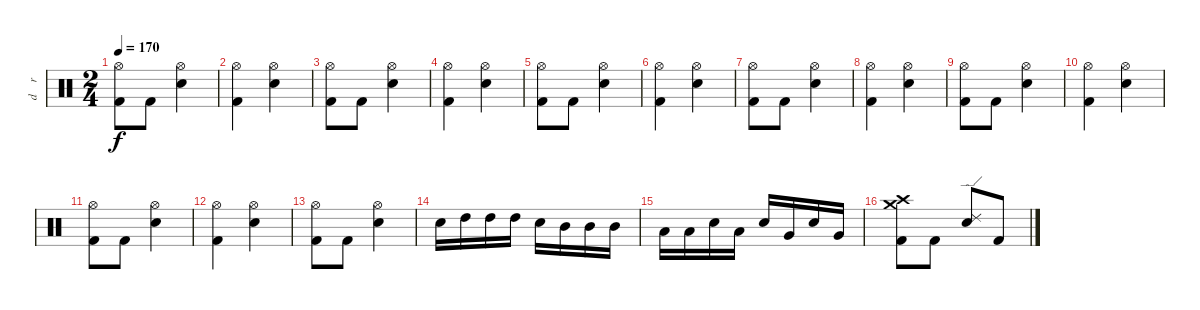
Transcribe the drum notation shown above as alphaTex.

\track ("d    r     u     m    s" "d    r    ") {instrument percussion}
\staff {score}
\articulation defaults
\ts (2 4)
\tempo 170
\clef neutral
\ks c
("Hi-Hat (open)" "Kick (hit) 2").8{dy f} "Kick (hit) 2".8 ("Hi-Hat (open)" "Electric Snare (hit)").4 |
("Hi-Hat (open)" "Kick (hit) 2").4 ("Hi-Hat (open)" "Electric Snare (hit)").4 |
("Hi-Hat (open)" "Kick (hit) 2").8 "Kick (hit) 2".8 ("Hi-Hat (open)" "Electric Snare (hit)").4 |
("Hi-Hat (open)" "Kick (hit) 2").4 ("Hi-Hat (open)" "Electric Snare (hit)").4 |
("Hi-Hat (open)" "Kick (hit) 2").8 "Kick (hit) 2".8 ("Hi-Hat (open)" "Electric Snare (hit)").4 |
("Hi-Hat (open)" "Kick (hit) 2").4 ("Hi-Hat (open)" "Electric Snare (hit)").4 |
("Hi-Hat (open)" "Kick (hit) 2").8 "Kick (hit) 2".8 ("Hi-Hat (open)" "Electric Snare (hit)").4 |
("Hi-Hat (open)" "Kick (hit) 2").4 ("Hi-Hat (open)" "Electric Snare (hit)").4 |
("Hi-Hat (open)" "Kick (hit) 2").8 "Kick (hit) 2".8 ("Hi-Hat (open)" "Electric Snare (hit)").4 |
("Hi-Hat (open)" "Kick (hit) 2").4 ("Hi-Hat (open)" "Electric Snare (hit)").4 |
("Hi-Hat (open)" "Kick (hit) 2").8 "Kick (hit) 2".8 ("Hi-Hat (open)" "Electric Snare (hit)").4 |
("Hi-Hat (open)" "Kick (hit) 2").4 ("Hi-Hat (open)" "Electric Snare (hit)").4 |
("Hi-Hat (open)" "Kick (hit) 2").8 "Kick (hit) 2".8 ("Hi-Hat (open)" "Electric Snare (hit)").4 |
"Electric Snare (hit)".16 "High Tom (hit)".16 "High Tom (hit)".16 "High Tom (hit)".16 "Electric Snare (hit)".16 "Mid Tom (hit)".16 "Mid Tom (hit)".16 "Mid Tom (hit)".16 |
"Low Tom (hit)".16 "Low Tom (hit)".16 "Electric Snare (hit)".16 "Low Tom (hit)".16 "Electric Snare (hit)".16 "Very Low Tom (hit)".16 "Electric Snare (hit)".16 "Very Low Tom (hit)".16 |
("Crash high (hit)" "Crash medium (hit)" "Kick (hit) 2").8 "Kick (hit) 2".8 ("Ride (edge) 2" "Electric Snare (hit)").8 "Kick (hit) 2".8
